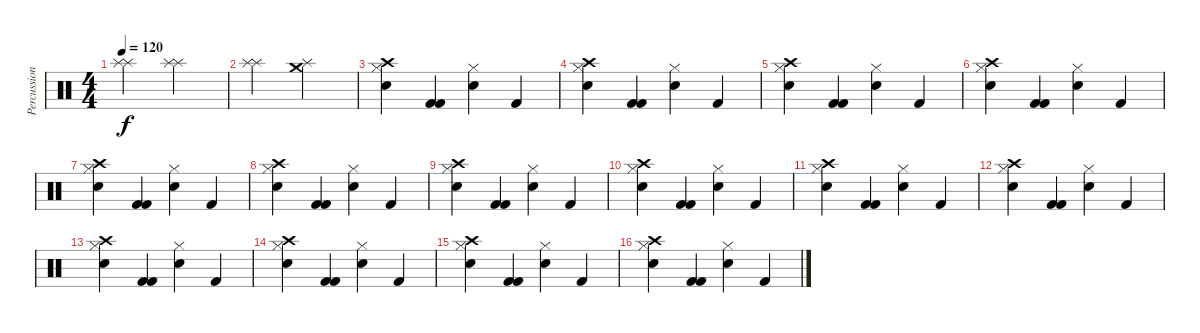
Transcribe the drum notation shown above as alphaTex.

\track ("Percussions" "Percussion") {instrument percussion}
\staff {score}
\articulation defaults
\ts (4 4)
\tempo 120
\clef neutral
\ks c
("Splash (hit)" "Splash (hit)").2{dy f} ("Splash (hit)" "Splash (hit)").2 |
("Splash (hit)" "Splash (hit)").2 ("Crash medium (hit)" "Splash (hit)").2 |
("Crash high (hit)" "Electric Snare (hit)" "Hi-Hat (closed)").4 ("Kick (hit) 2" "Kick (hit) 2").4 ("Electric Snare (hit)" "Hi-Hat (closed)").4 "Kick (hit) 2".4 |
("Crash high (hit)" "Electric Snare (hit)" "Hi-Hat (closed)").4 ("Kick (hit) 2" "Kick (hit) 2").4 ("Electric Snare (hit)" "Hi-Hat (closed)").4 "Kick (hit) 2".4 |
("Crash high (hit)" "Electric Snare (hit)" "Hi-Hat (closed)").4 ("Kick (hit) 2" "Kick (hit) 2").4 ("Electric Snare (hit)" "Hi-Hat (closed)").4 "Kick (hit) 2".4 |
("Crash high (hit)" "Electric Snare (hit)" "Hi-Hat (closed)").4 ("Kick (hit) 2" "Kick (hit) 2").4 ("Electric Snare (hit)" "Hi-Hat (closed)").4 "Kick (hit) 2".4 |
("Crash high (hit)" "Electric Snare (hit)" "Hi-Hat (closed)").4 ("Kick (hit) 2" "Kick (hit) 2").4 ("Electric Snare (hit)" "Hi-Hat (closed)").4 "Kick (hit) 2".4 |
("Crash high (hit)" "Electric Snare (hit)" "Hi-Hat (closed)").4 ("Kick (hit) 2" "Kick (hit) 2").4 ("Electric Snare (hit)" "Hi-Hat (closed)").4 "Kick (hit) 2".4 |
("Crash high (hit)" "Electric Snare (hit)" "Hi-Hat (closed)").4 ("Kick (hit) 2" "Kick (hit) 2").4 ("Electric Snare (hit)" "Hi-Hat (closed)").4 "Kick (hit) 2".4 |
("Crash high (hit)" "Electric Snare (hit)" "Hi-Hat (closed)").4 ("Kick (hit) 2" "Kick (hit) 2").4 ("Electric Snare (hit)" "Hi-Hat (closed)").4 "Kick (hit) 2".4 |
("Crash high (hit)" "Electric Snare (hit)" "Hi-Hat (closed)").4 ("Kick (hit) 2" "Kick (hit) 2").4 ("Electric Snare (hit)" "Hi-Hat (closed)").4 "Kick (hit) 2".4 |
("Crash high (hit)" "Electric Snare (hit)" "Hi-Hat (closed)").4 ("Kick (hit) 2" "Kick (hit) 2").4 ("Electric Snare (hit)" "Hi-Hat (closed)").4 "Kick (hit) 2".4 |
("Crash high (hit)" "Electric Snare (hit)" "Hi-Hat (closed)").4 ("Kick (hit) 2" "Kick (hit) 2").4 ("Electric Snare (hit)" "Hi-Hat (closed)").4 "Kick (hit) 2".4 |
("Crash high (hit)" "Electric Snare (hit)" "Hi-Hat (closed)").4 ("Kick (hit) 2" "Kick (hit) 2").4 ("Electric Snare (hit)" "Hi-Hat (closed)").4 "Kick (hit) 2".4 |
("Crash high (hit)" "Electric Snare (hit)" "Hi-Hat (closed)").4 ("Kick (hit) 2" "Kick (hit) 2").4 ("Electric Snare (hit)" "Hi-Hat (closed)").4 "Kick (hit) 2".4 |
("Crash high (hit)" "Electric Snare (hit)" "Hi-Hat (closed)").4 ("Kick (hit) 2" "Kick (hit) 2").4 ("Electric Snare (hit)" "Hi-Hat (closed)").4 "Kick (hit) 2".4
